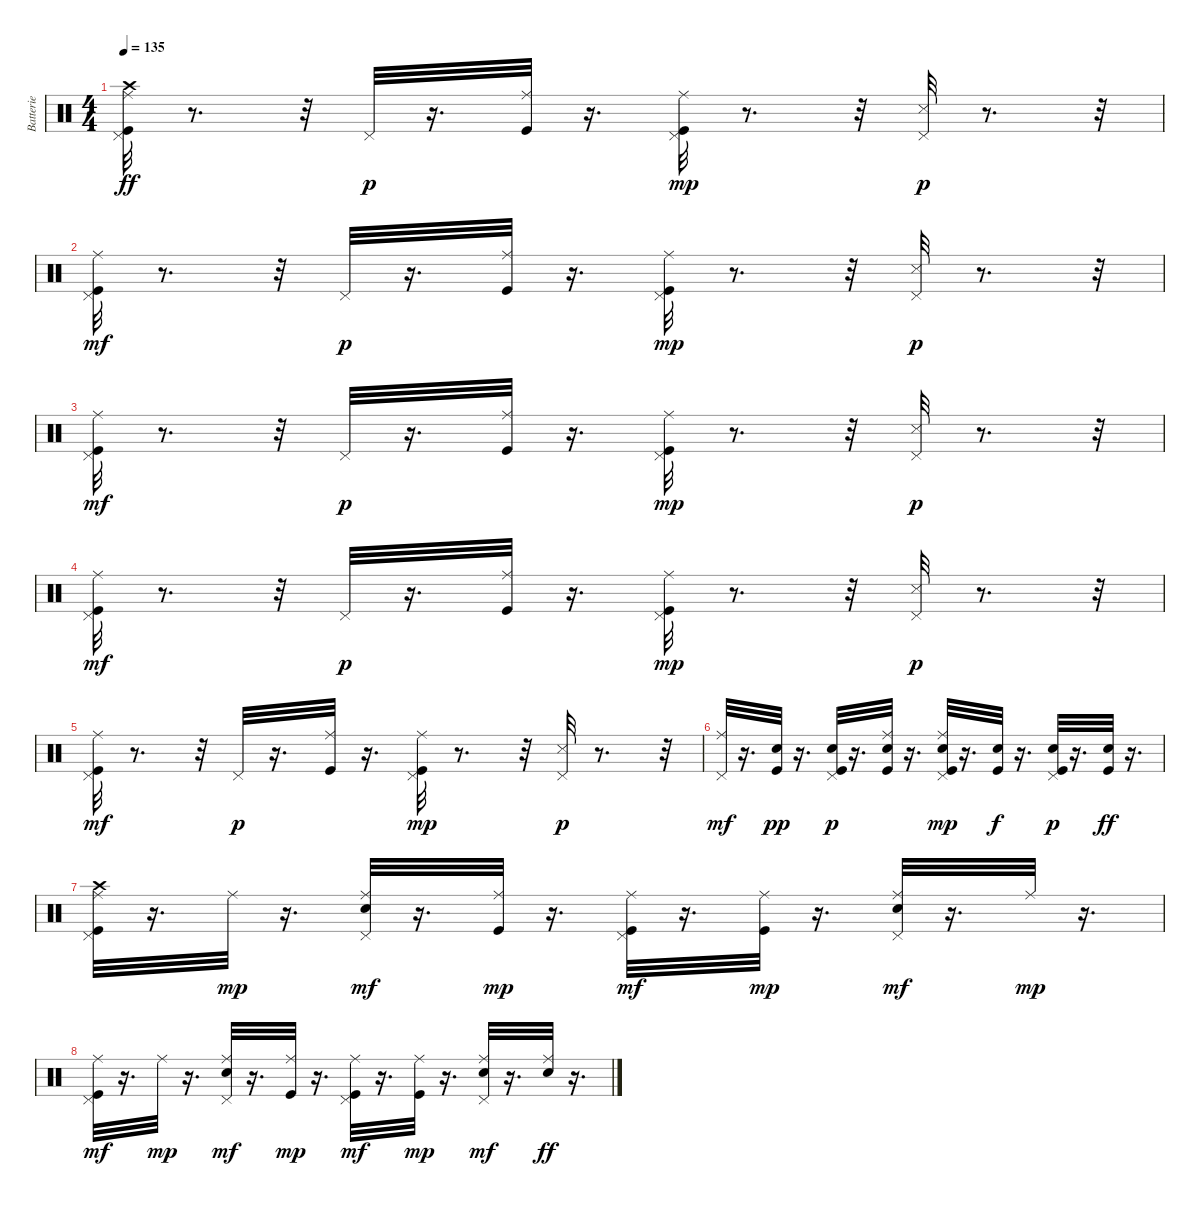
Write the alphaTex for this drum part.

\track ("Batterie" "Batterie") {instrument percussion}
\staff {score}
\articulation defaults
\ts (4 4)
\tempo 135
\clef neutral
\ks c
("Kick (hit)" "Pedal Hi-Hat (hit)" "Ride (middle)" "Crash high (hit)").32{dy ff} r.8{d} r.32 "Pedal Hi-Hat (hit)".32{dy p} r.16{d} ("Kick (hit)" "Ride (middle)").32 r.16{d} ("Kick (hit)" "Pedal Hi-Hat (hit)" "Ride (middle)").32{dy mp} r.8{d} r.32 ("Snare (side stick) 3" "Pedal Hi-Hat (hit)").32{dy p} r.8{d} r.32 |
("Kick (hit)" "Pedal Hi-Hat (hit)" "Ride (middle)").32{dy mf} r.8{d} r.32 "Pedal Hi-Hat (hit)".32{dy p} r.16{d} ("Kick (hit)" "Ride (middle)").32 r.16{d} ("Kick (hit)" "Pedal Hi-Hat (hit)" "Ride (middle)").32{dy mp} r.8{d} r.32 ("Snare (side stick) 3" "Pedal Hi-Hat (hit)").32{dy p} r.8{d} r.32 |
("Kick (hit)" "Pedal Hi-Hat (hit)" "Ride (middle)").32{dy mf} r.8{d} r.32 "Pedal Hi-Hat (hit)".32{dy p} r.16{d} ("Kick (hit)" "Ride (middle)").32 r.16{d} ("Kick (hit)" "Pedal Hi-Hat (hit)" "Ride (middle)").32{dy mp} r.8{d} r.32 ("Snare (side stick) 3" "Pedal Hi-Hat (hit)").32{dy p} r.8{d} r.32 |
("Kick (hit)" "Pedal Hi-Hat (hit)" "Ride (middle)").32{dy mf} r.8{d} r.32 "Pedal Hi-Hat (hit)".32{dy p} r.16{d} ("Kick (hit)" "Ride (middle)").32 r.16{d} ("Kick (hit)" "Pedal Hi-Hat (hit)" "Ride (middle)").32{dy mp} r.8{d} r.32 ("Snare (side stick) 3" "Pedal Hi-Hat (hit)").32{dy p} r.8{d} r.32 |
("Kick (hit)" "Pedal Hi-Hat (hit)" "Ride (middle)").32{dy mf} r.8{d} r.32 "Pedal Hi-Hat (hit)".32{dy p} r.16{d} ("Kick (hit)" "Ride (middle)").32 r.16{d} ("Kick (hit)" "Pedal Hi-Hat (hit)" "Ride (middle)").32{dy mp} r.8{d} r.32 ("Snare (side stick) 3" "Pedal Hi-Hat (hit)").32{dy p} r.8{d} r.32 |
("Pedal Hi-Hat (hit)" "Ride (middle)").32{dy mf} r.16{d} ("Kick (hit)" "Electric Snare (hit)").32{dy pp} r.16{d} ("Kick (hit)" "Electric Snare (hit)" "Pedal Hi-Hat (hit)").32{dy p} r.16{d} ("Kick (hit)" "Electric Snare (hit)" "Ride (middle)").32 r.16{d} ("Kick (hit)" "Electric Snare (hit)" "Pedal Hi-Hat (hit)" "Ride (middle)").32{dy mp} r.16{d} ("Kick (hit)" "Electric Snare (hit)").32{dy f} r.16{d} ("Kick (hit)" "Electric Snare (hit)" "Pedal Hi-Hat (hit)").32{dy p} r.16{d} ("Kick (hit)" "Electric Snare (hit)").32{dy ff} r.16{d} |
("Kick (hit)" "Pedal Hi-Hat (hit)" "Ride (middle)" "Crash high (hit)").32 r.16{d} "Ride (middle)".32{dy mp} r.16{d} ("Electric Snare (hit)" "Pedal Hi-Hat (hit)" "Ride (middle)").32{dy mf} r.16{d} ("Kick (hit)" "Ride (middle)").32{dy mp} r.16{d} ("Kick (hit)" "Pedal Hi-Hat (hit)" "Ride (middle)").32{dy mf} r.16{d} ("Kick (hit)" "Ride (middle)").32{dy mp} r.16{d} ("Electric Snare (hit)" "Pedal Hi-Hat (hit)" "Ride (middle)").32{dy mf} r.16{d} "Ride (middle)".32{dy mp} r.16{d} |
("Kick (hit)" "Pedal Hi-Hat (hit)" "Ride (middle)").32{dy mf} r.16{d} "Ride (middle)".32{dy mp} r.16{d} ("Electric Snare (hit)" "Pedal Hi-Hat (hit)" "Ride (middle)").32{dy mf} r.16{d} ("Kick (hit)" "Ride (middle)").32{dy mp} r.16{d} ("Kick (hit)" "Pedal Hi-Hat (hit)" "Ride (middle)").32{dy mf} r.16{d} ("Kick (hit)" "Ride (middle)").32{dy mp} r.16{d} ("Electric Snare (hit)" "Pedal Hi-Hat (hit)" "Ride (middle)").32{dy mf} r.16{d} ("Ride (middle)" "Electric Snare (hit)").32{dy ff} r.16{d}
